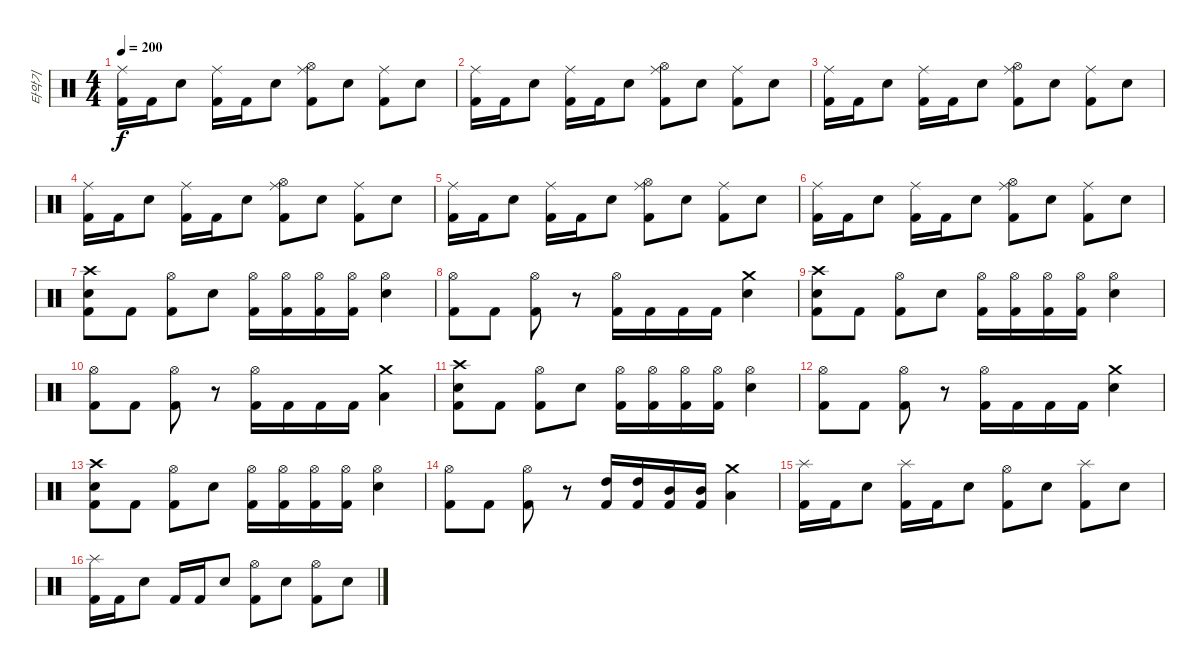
\track ("타악기" "타악기") {instrument percussion}
\staff {score}
\articulation defaults
\ts (4 4)
\tempo 200
\clef neutral
\ks c
("Ride (middle)" "Kick (hit) 2").16{dy f} "Kick (hit) 2".16 "Snare (hit) 2".8 ("Ride (middle)" "Kick (hit) 2").16 "Kick (hit) 2".16 "Snare (hit) 2".8 ("Ride (middle)" "Hi-Hat (open)" "Kick (hit) 2").8 "Snare (hit) 2".8 ("Ride (middle)" "Kick (hit) 2").8 "Snare (hit) 2".8 |
("Ride (middle)" "Kick (hit) 2").16 "Kick (hit) 2".16 "Snare (hit) 2".8 ("Ride (middle)" "Kick (hit) 2").16 "Kick (hit) 2".16 "Snare (hit) 2".8 ("Ride (middle)" "Hi-Hat (open)" "Kick (hit) 2").8 "Snare (hit) 2".8 ("Ride (middle)" "Kick (hit) 2").8 "Snare (hit) 2".8 |
("Ride (middle)" "Kick (hit) 2").16 "Kick (hit) 2".16 "Snare (hit) 2".8 ("Ride (middle)" "Kick (hit) 2").16 "Kick (hit) 2".16 "Snare (hit) 2".8 ("Ride (middle)" "Hi-Hat (open)" "Kick (hit) 2").8 "Snare (hit) 2".8 ("Ride (middle)" "Kick (hit) 2").8 "Snare (hit) 2".8 |
("Ride (middle)" "Kick (hit) 2").16 "Kick (hit) 2".16 "Snare (hit) 2".8 ("Ride (middle)" "Kick (hit) 2").16 "Kick (hit) 2".16 "Snare (hit) 2".8 ("Ride (middle)" "Hi-Hat (open)" "Kick (hit) 2").8 "Snare (hit) 2".8 ("Ride (middle)" "Kick (hit) 2").8 "Snare (hit) 2".8 |
("Ride (middle)" "Kick (hit) 2").16 "Kick (hit) 2".16 "Snare (hit) 2".8 ("Ride (middle)" "Kick (hit) 2").16 "Kick (hit) 2".16 "Snare (hit) 2".8 ("Ride (middle)" "Hi-Hat (open)" "Kick (hit) 2").8 "Snare (hit) 2".8 ("Ride (middle)" "Kick (hit) 2").8 "Snare (hit) 2".8 |
("Ride (middle)" "Kick (hit) 2").16 "Kick (hit) 2".16 "Snare (hit) 2".8 ("Ride (middle)" "Kick (hit) 2").16 "Kick (hit) 2".16 "Snare (hit) 2".8 ("Ride (middle)" "Hi-Hat (open)" "Kick (hit) 2").8 "Snare (hit) 2".8 ("Ride (middle)" "Kick (hit) 2").8 "Snare (hit) 2".8 |
("Crash high (hit)" "Snare (hit) 2" "Kick (hit) 2").8 "Kick (hit) 2".8 ("Hi-Hat (open)" "Kick (hit) 2").8 "Snare (hit) 2".8 ("Hi-Hat (open)" "Kick (hit) 2").16 ("Hi-Hat (open)" "Kick (hit) 2").16 ("Hi-Hat (open)" "Kick (hit) 2").16 ("Hi-Hat (open)" "Kick (hit) 2").16 ("Hi-Hat (open)" "Snare (hit) 2").4 |
("Hi-Hat (open)" "Kick (hit) 2").8 "Kick (hit) 2".8 ("Hi-Hat (open)" "Kick (hit) 2").8 r.8 ("Hi-Hat (open)" "Kick (hit) 2").16 "Kick (hit) 2".16 "Kick (hit) 2".16 "Kick (hit) 2".16 ("Crash medium (hit)" "Electric Snare (hit)").4 |
("Crash high (hit)" "Snare (hit) 2" "Kick (hit) 2").8 "Kick (hit) 2".8 ("Hi-Hat (open)" "Kick (hit) 2").8 "Snare (hit) 2".8 ("Hi-Hat (open)" "Kick (hit) 2").16 ("Hi-Hat (open)" "Kick (hit) 2").16 ("Hi-Hat (open)" "Kick (hit) 2").16 ("Hi-Hat (open)" "Kick (hit) 2").16 ("Hi-Hat (open)" "Snare (hit) 2").4 |
("Hi-Hat (open)" "Kick (hit) 2").8 "Kick (hit) 2".8 ("Hi-Hat (open)" "Kick (hit) 2").8 r.8 ("Hi-Hat (open)" "Kick (hit) 2").16 "Kick (hit) 2".16 "Kick (hit) 2".16 "Kick (hit) 2".16 ("Crash medium (hit)" "Low Tom (hit)").4 |
("Crash high (hit)" "Snare (hit) 2" "Kick (hit) 2").8 "Kick (hit) 2".8 ("Hi-Hat (open)" "Kick (hit) 2").8 "Snare (hit) 2".8 ("Hi-Hat (open)" "Kick (hit) 2").16 ("Hi-Hat (open)" "Kick (hit) 2").16 ("Hi-Hat (open)" "Kick (hit) 2").16 ("Hi-Hat (open)" "Kick (hit) 2").16 ("Hi-Hat (open)" "Electric Snare (hit)").4 |
("Hi-Hat (open)" "Kick (hit) 2").8 "Kick (hit) 2".8 ("Hi-Hat (open)" "Kick (hit) 2").8 r.8 ("Hi-Hat (open)" "Kick (hit) 2").16 "Kick (hit) 2".16 "Kick (hit) 2".16 "Kick (hit) 2".16 ("Crash medium (hit)" "Electric Snare (hit)").4 |
("Crash high (hit)" "Snare (hit) 2" "Kick (hit) 2").8 "Kick (hit) 2".8 ("Hi-Hat (open)" "Kick (hit) 2").8 "Snare (hit) 2".8 ("Hi-Hat (open)" "Kick (hit) 2").16 ("Hi-Hat (open)" "Kick (hit) 2").16 ("Hi-Hat (open)" "Kick (hit) 2").16 ("Hi-Hat (open)" "Kick (hit) 2").16 ("Hi-Hat (open)" "Snare (hit) 2").4 |
("Hi-Hat (open)" "Kick (hit) 2").8 "Kick (hit) 2".8 ("Hi-Hat (open)" "Kick (hit) 2").8 r.8 ("High Tom (hit)" "Kick (hit) 2").16 ("High Tom (hit)" "Kick (hit) 2").16 ("Mid Tom (hit)" "Kick (hit) 2").16 ("Mid Tom (hit)" "Kick (hit) 2").16 ("Crash medium (hit)" "Low Tom (hit)").4 |
("Splash (hit)" "Kick (hit) 2").16 "Kick (hit) 2".16 "Snare (hit) 2".8 ("Splash (hit)" "Kick (hit) 2").16 "Kick (hit) 2".16 "Snare (hit) 2".8 ("Hi-Hat (open)" "Kick (hit) 2").8 "Snare (hit) 2".8 ("Splash (hit)" "Kick (hit) 2").8 "Snare (hit) 2".8 |
("Splash (hit)" "Kick (hit) 2").16 "Kick (hit) 2".16 "Snare (hit) 2".8 "Kick (hit) 2".16 "Kick (hit) 2".16 "Snare (hit) 2".8 ("Hi-Hat (open)" "Kick (hit) 2").8 "Snare (hit) 2".8 ("Hi-Hat (open)" "Kick (hit) 2").8 "Snare (hit) 2".8
